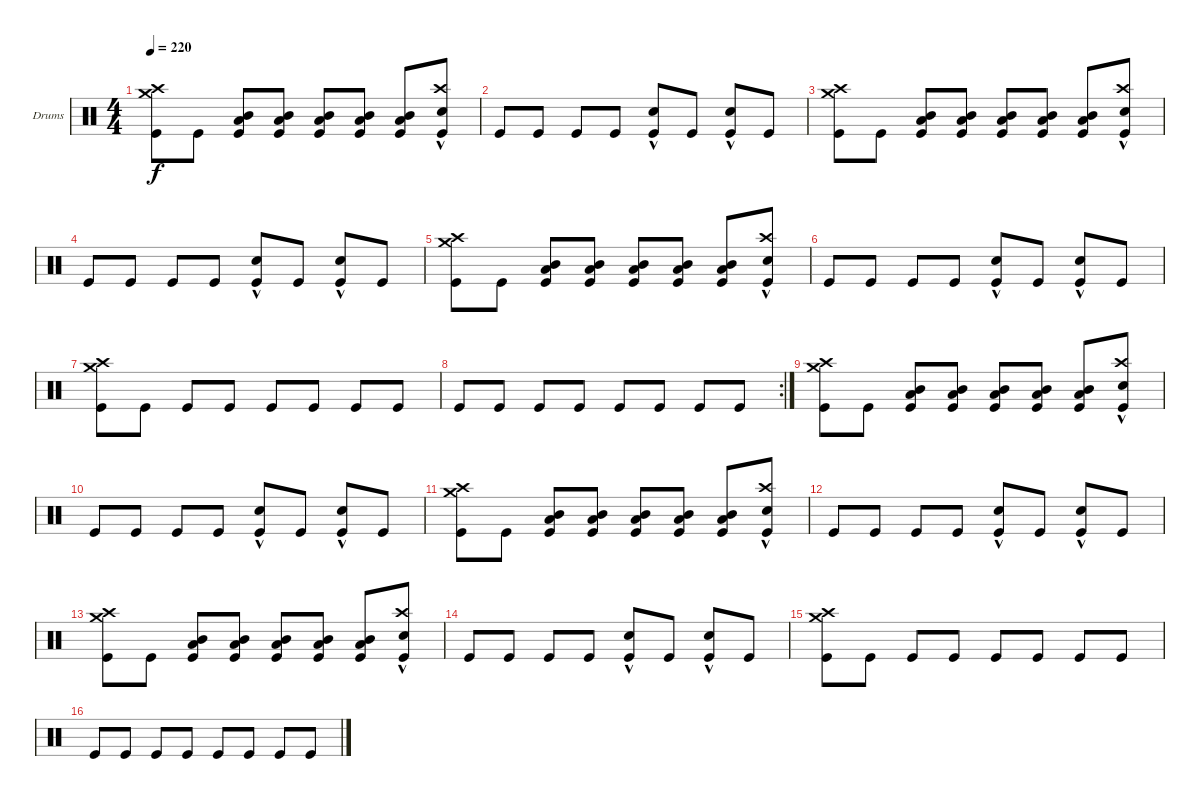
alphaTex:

\defaultSystemsLayout 4
\bracketExtendMode groupsimilarinstruments
\firstSystemTrackNameOrientation horizontal
\otherSystemsTrackNameOrientation horizontal
\track ("Drumkit" "Drums") {instrument percussion}
\staff {score}
\articulation defaults
\ts (4 4)
\tempo 220
\clef neutral
\scale
0.333333
\ks c
("Kick (hit)" "Crash high (hit)" "Crash medium (hit)").8{dy f} "Kick (hit)".8 ("Kick (hit)" "Mid Tom (hit)" "Low Tom (hit)").8 ("Kick (hit)" "Mid Tom (hit)" "Low Tom (hit)").8 ("Kick (hit)" "Mid Tom (hit)" "Low Tom (hit)").8 ("Kick (hit)" "Mid Tom (hit)" "Low Tom (hit)").8 ("Kick (hit)" "Mid Tom (hit)" "Low Tom (hit)").8 ("Kick (hit)" "Snare (hit) 2"{hac} "Crash high (hit)").8 |
\scale
0.333333 "Kick (hit)".8 "Kick (hit)".8 "Kick (hit)".8 "Kick (hit)".8 ("Kick (hit)" "Snare (hit) 2"{hac}).8 "Kick (hit)".8 ("Kick (hit)" "Snare (hit) 2"{hac}).8 "Kick (hit)".8 |
\scale
0.333333 ("Kick (hit)" "Crash high (hit)" "Crash medium (hit)").8 "Kick (hit)".8 ("Kick (hit)" "Mid Tom (hit)" "Low Tom (hit)").8 ("Kick (hit)" "Mid Tom (hit)" "Low Tom (hit)").8 ("Kick (hit)" "Mid Tom (hit)" "Low Tom (hit)").8 ("Kick (hit)" "Mid Tom (hit)" "Low Tom (hit)").8 ("Kick (hit)" "Mid Tom (hit)" "Low Tom (hit)").8 ("Kick (hit)" "Snare (hit) 2"{hac} "Crash high (hit)").8 |
\scale
0.333333 "Kick (hit)".8 "Kick (hit)".8 "Kick (hit)".8 "Kick (hit)".8 ("Kick (hit)" "Snare (hit) 2"{hac}).8 "Kick (hit)".8 ("Kick (hit)" "Snare (hit) 2"{hac}).8 "Kick (hit)".8 |
\scale
0.333333 ("Kick (hit)" "Crash high (hit)" "Crash medium (hit)").8 "Kick (hit)".8 ("Kick (hit)" "Mid Tom (hit)" "Low Tom (hit)").8 ("Kick (hit)" "Mid Tom (hit)" "Low Tom (hit)").8 ("Kick (hit)" "Mid Tom (hit)" "Low Tom (hit)").8 ("Kick (hit)" "Mid Tom (hit)" "Low Tom (hit)").8 ("Kick (hit)" "Mid Tom (hit)" "Low Tom (hit)").8 ("Kick (hit)" "Snare (hit) 2"{hac} "Crash high (hit)").8 |
\scale
0.333333 "Kick (hit)".8 "Kick (hit)".8 "Kick (hit)".8 "Kick (hit)".8 ("Kick (hit)" "Snare (hit) 2"{hac}).8 "Kick (hit)".8 ("Kick (hit)" "Snare (hit) 2"{hac}).8 "Kick (hit)".8 |
\scale
0.333333 ("Kick (hit)" "Crash high (hit)" "Crash medium (hit)").8 "Kick (hit)".8 "Kick (hit)".8 "Kick (hit)".8 "Kick (hit)".8 "Kick (hit)".8 "Kick (hit)".8 "Kick (hit)".8 |
\rc 2
\scale
0.356322 "Kick (hit)".8 "Kick (hit)".8 "Kick (hit)".8 "Kick (hit)".8 "Kick (hit)".8 "Kick (hit)".8 "Kick (hit)".8 "Kick (hit)".8 |
\scale
0.321839 ("Kick (hit)" "Crash high (hit)" "Crash medium (hit)").8 "Kick (hit)".8 ("Kick (hit)" "Mid Tom (hit)" "Low Tom (hit)").8 ("Kick (hit)" "Mid Tom (hit)" "Low Tom (hit)").8 ("Kick (hit)" "Mid Tom (hit)" "Low Tom (hit)").8 ("Kick (hit)" "Mid Tom (hit)" "Low Tom (hit)").8 ("Kick (hit)" "Mid Tom (hit)" "Low Tom (hit)").8 ("Kick (hit)" "Snare (hit) 2"{hac} "Crash high (hit)").8 |
\scale
0.321839 "Kick (hit)".8 "Kick (hit)".8 "Kick (hit)".8 "Kick (hit)".8 ("Kick (hit)" "Snare (hit) 2"{hac}).8 "Kick (hit)".8 ("Kick (hit)" "Snare (hit) 2"{hac}).8 "Kick (hit)".8 |
\scale
0.333333 ("Kick (hit)" "Crash high (hit)" "Crash medium (hit)").8 "Kick (hit)".8 ("Kick (hit)" "Mid Tom (hit)" "Low Tom (hit)").8 ("Kick (hit)" "Mid Tom (hit)" "Low Tom (hit)").8 ("Kick (hit)" "Mid Tom (hit)" "Low Tom (hit)").8 ("Kick (hit)" "Mid Tom (hit)" "Low Tom (hit)").8 ("Kick (hit)" "Mid Tom (hit)" "Low Tom (hit)").8 ("Kick (hit)" "Snare (hit) 2"{hac} "Crash high (hit)").8 |
\scale
0.333333 "Kick (hit)".8 "Kick (hit)".8 "Kick (hit)".8 "Kick (hit)".8 ("Kick (hit)" "Snare (hit) 2"{hac}).8 "Kick (hit)".8 ("Kick (hit)" "Snare (hit) 2"{hac}).8 "Kick (hit)".8 |
\scale
0.333333 ("Kick (hit)" "Crash high (hit)" "Crash medium (hit)").8 "Kick (hit)".8 ("Kick (hit)" "Mid Tom (hit)" "Low Tom (hit)").8 ("Kick (hit)" "Mid Tom (hit)" "Low Tom (hit)").8 ("Kick (hit)" "Mid Tom (hit)" "Low Tom (hit)").8 ("Kick (hit)" "Mid Tom (hit)" "Low Tom (hit)").8 ("Kick (hit)" "Mid Tom (hit)" "Low Tom (hit)").8 ("Kick (hit)" "Snare (hit) 2"{hac} "Crash high (hit)").8 |
\scale
0.333333 "Kick (hit)".8 "Kick (hit)".8 "Kick (hit)".8 "Kick (hit)".8 ("Kick (hit)" "Snare (hit) 2"{hac}).8 "Kick (hit)".8 ("Kick (hit)" "Snare (hit) 2"{hac}).8 "Kick (hit)".8 |
\scale
0.333333 ("Kick (hit)" "Crash high (hit)" "Crash medium (hit)").8 "Kick (hit)".8 "Kick (hit)".8 "Kick (hit)".8 "Kick (hit)".8 "Kick (hit)".8 "Kick (hit)".8 "Kick (hit)".8 |
\scale
0.333333 "Kick (hit)".8 "Kick (hit)".8 "Kick (hit)".8 "Kick (hit)".8 "Kick (hit)".8 "Kick (hit)".8 "Kick (hit)".8 "Kick (hit)".8
